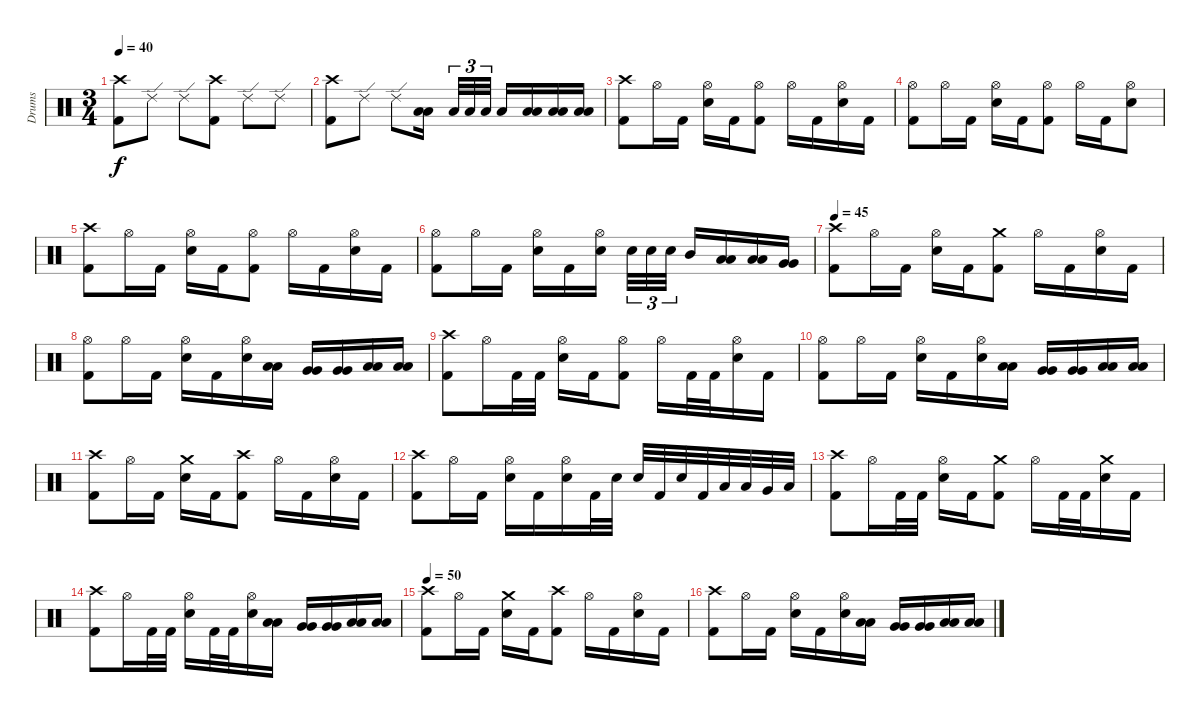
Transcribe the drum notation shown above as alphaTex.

\track ("Drums" "Drums") {instrument percussion}
\staff {score}
\articulation defaults
\ts (3 4)
\tempo 40
\clef neutral
\ks c
("Crash high (hit)" "Kick (hit) 2").8{dy f} "Ride (edge) 2".8 "Ride (edge) 2".8 ("Crash high (hit)" "Kick (hit) 2").8 "Ride (edge) 2".8 "Ride (edge) 2".8 |
("Crash high (hit)" "Kick (hit) 2").8 "Ride (edge) 2".8 "Ride (edge) 2".8 ("Low Tom (hit)" "Low Tom (hit)").16{bu 60} "Low Tom (hit)".32{tu (3 2)} "Low Tom (hit)".32{tu (3 2)} "Low Tom (hit)".32{tu (3 2)} "Low Tom (hit)".16 ("Low Tom (hit)" "Low Tom (hit)").16{bu 60} ("Low Tom (hit)" "Low Tom (hit)").16{bu 60} ("Low Tom (hit)" "Low Tom (hit)").16{bu 60} |
("Crash high (hit)" "Kick (hit) 2").8 "Hi-Hat (open)".16 "Kick (hit) 2".16 ("Hi-Hat (open)" "Electric Snare (hit)").16 "Kick (hit) 2".16 ("Hi-Hat (open)" "Kick (hit) 2").8 "Hi-Hat (open)".16 "Kick (hit) 2".16 ("Hi-Hat (open)" "Electric Snare (hit)").16 "Kick (hit) 2".16 |
("Hi-Hat (open)" "Kick (hit) 2").8 "Hi-Hat (open)".16 "Kick (hit) 2".16 ("Hi-Hat (open)" "Electric Snare (hit)").16 "Kick (hit) 2".16 ("Hi-Hat (open)" "Kick (hit) 2").8 "Hi-Hat (open)".16 "Kick (hit) 2".16 ("Hi-Hat (open)" "Electric Snare (hit)").8 |
("Crash high (hit)" "Kick (hit) 2").8 "Hi-Hat (open)".16 "Kick (hit) 2".16 ("Hi-Hat (open)" "Electric Snare (hit)").16 "Kick (hit) 2".16 ("Hi-Hat (open)" "Kick (hit) 2").8 "Hi-Hat (open)".16 "Kick (hit) 2".16 ("Hi-Hat (open)" "Electric Snare (hit)").16 "Kick (hit) 2".16 |
("Hi-Hat (open)" "Kick (hit) 2").8 "Hi-Hat (open)".16 "Kick (hit) 2".16 ("Hi-Hat (open)" "Electric Snare (hit)").16 "Kick (hit) 2".16 ("Hi-Hat (open)" "Electric Snare (hit)").16 "Electric Snare (hit)".32{tu (3 2)} "Electric Snare (hit)".32{tu (3 2)} "Electric Snare (hit)".32{tu (3 2)} "Mid Tom (hit)".16 ("Low Tom (hit)" "Low Tom (hit)").16{bu 60} ("Low Tom (hit)" "Low Tom (hit)").16{bu 60} ("Very Low Tom (hit)" "Very Low Tom (hit)").16{bu 60} |
\tempo 45
("Crash high (hit)" "Kick (hit) 2").8 "Hi-Hat (open)".16 "Kick (hit) 2".16 ("Hi-Hat (open)" "Electric Snare (hit)").16 "Kick (hit) 2".16 ("Crash medium (hit)" "Kick (hit) 2").8 "Hi-Hat (open)".16 "Kick (hit) 2".16 ("Hi-Hat (open)" "Electric Snare (hit)").16 "Kick (hit) 2".16 |
("Hi-Hat (open)" "Kick (hit) 2").8 "Hi-Hat (open)".16 "Kick (hit) 2".16 ("Hi-Hat (open)" "Electric Snare (hit)").16 "Kick (hit) 2".16 ("Hi-Hat (open)" "Electric Snare (hit)").16 ("Low Tom (hit)" "Low Tom (hit)").16{bu 60} ("Very Low Tom (hit)" "Very Low Tom (hit)").16{bu 60} ("Very Low Tom (hit)" "Very Low Tom (hit)").16{bu 60} ("Low Floor Tom (hit)" "Low Floor Tom (hit)").16{bu 60} ("Low Floor Tom (hit)" "Low Floor Tom (hit)").16{bu 60} |
("Crash high (hit)" "Kick (hit) 2").8 "Hi-Hat (open)".16 "Kick (hit) 2".32 "Kick (hit) 2".32 ("Hi-Hat (open)" "Electric Snare (hit)").16 "Kick (hit) 2".16 ("Hi-Hat (open)" "Kick (hit) 2").8 "Hi-Hat (open)".16 "Kick (hit) 2".32 "Kick (hit) 2".32 ("Hi-Hat (open)" "Electric Snare (hit)").16 "Kick (hit) 2".16 |
("Hi-Hat (open)" "Kick (hit) 2").8 "Hi-Hat (open)".16 "Kick (hit) 2".16 ("Hi-Hat (open)" "Electric Snare (hit)").16 "Kick (hit) 2".16 ("Hi-Hat (open)" "Electric Snare (hit)").16 ("Low Tom (hit)" "Low Tom (hit)").16{bu 60} ("Very Low Tom (hit)" "Very Low Tom (hit)").16{bu 60} ("Very Low Tom (hit)" "Very Low Tom (hit)").16{bu 60} ("Low Floor Tom (hit)" "Low Floor Tom (hit)").16{bu 60} ("Low Floor Tom (hit)" "Low Floor Tom (hit)").16{bu 60} |
("Crash high (hit)" "Kick (hit) 2").8 "Hi-Hat (open)".16 "Kick (hit) 2".16 ("Crash medium (hit)" "Electric Snare (hit)").16 "Kick (hit) 2".16 ("Crash high (hit)" "Kick (hit) 2").8 "Hi-Hat (open)".16 "Kick (hit) 2".16 ("Hi-Hat (open)" "Electric Snare (hit)").16 "Kick (hit) 2".16 |
("Crash high (hit)" "Kick (hit) 2").8 "Hi-Hat (open)".16 "Kick (hit) 2".16 ("Hi-Hat (open)" "Electric Snare (hit)").16 "Kick (hit) 2".16 ("Hi-Hat (open)" "Electric Snare (hit)").16 "Kick (hit) 2".32 "Electric Snare (hit)".32 "Electric Snare (hit)".32 "Kick (hit) 2".32 "Electric Snare (hit)".32 "Kick (hit) 2".32 "Low Tom (hit)".32 "Low Tom (hit)".32 "Very Low Tom (hit)".32 "Low Floor Tom (hit)".32 |
("Crash high (hit)" "Kick (hit) 2").8 "Hi-Hat (open)".16 "Kick (hit) 2".32 "Kick (hit) 2".32 ("Hi-Hat (open)" "Electric Snare (hit)").16 "Kick (hit) 2".16 ("Crash medium (hit)" "Kick (hit) 2").8 "Hi-Hat (open)".16 "Kick (hit) 2".32 "Kick (hit) 2".32 ("Crash medium (hit)" "Electric Snare (hit)").16 "Kick (hit) 2".16 |
("Crash high (hit)" "Kick (hit) 2").8 "Hi-Hat (open)".16 "Kick (hit) 2".32 "Kick (hit) 2".32 ("Hi-Hat (open)" "Electric Snare (hit)").16 "Kick (hit) 2".32 "Kick (hit) 2".32 ("Hi-Hat (open)" "Electric Snare (hit)").16 ("Low Tom (hit)" "Low Tom (hit)").16{bu 60} ("Very Low Tom (hit)" "Very Low Tom (hit)").16{bu 60} ("Very Low Tom (hit)" "Very Low Tom (hit)").16{bu 60} ("Low Floor Tom (hit)" "Low Floor Tom (hit)").16{bu 60} ("Low Floor Tom (hit)" "Low Floor Tom (hit)").16{bu 60} |
\tempo 50
("Crash high (hit)" "Kick (hit) 2").8 "Hi-Hat (open)".16 "Kick (hit) 2".16 ("Crash medium (hit)" "Electric Snare (hit)").16 "Kick (hit) 2".16 ("Crash high (hit)" "Kick (hit) 2").8 "Hi-Hat (open)".16 "Kick (hit) 2".16 ("Hi-Hat (open)" "Electric Snare (hit)").16 "Kick (hit) 2".16 |
("Crash high (hit)" "Kick (hit) 2").8 "Hi-Hat (open)".16 "Kick (hit) 2".16 ("Hi-Hat (open)" "Electric Snare (hit)").16 "Kick (hit) 2".16 ("Hi-Hat (open)" "Electric Snare (hit)").16 ("Low Tom (hit)" "Low Tom (hit)").16{bu 60} ("Very Low Tom (hit)" "Very Low Tom (hit)").16{bu 60} ("Very Low Tom (hit)" "Very Low Tom (hit)").16{bu 60} ("Low Floor Tom (hit)" "Low Floor Tom (hit)").16{bu 60} ("Low Floor Tom (hit)" "Low Floor Tom (hit)").16{bu 60}
